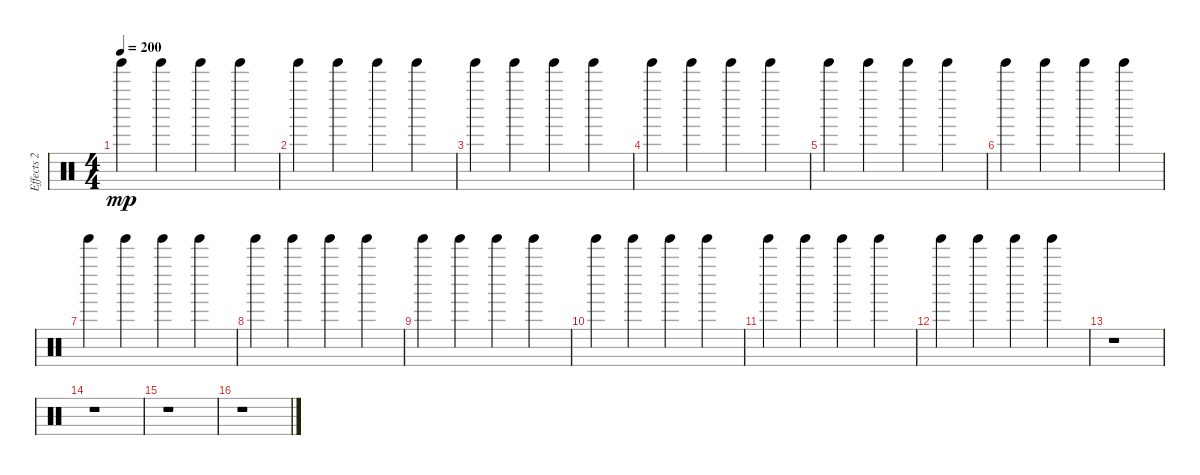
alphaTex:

\track ("Effects 2" "Effects 2") {instrument percussion}
\staff {score}
\articulation defaults
\ts (4 4)
\tempo 200
\clef neutral
\ks c "Tinkle Bell (hit)".4{dy mp} "Tinkle Bell (hit)".4 "Tinkle Bell (hit)".4 "Tinkle Bell (hit)".4
|
"Tinkle Bell (hit)".4 "Tinkle Bell (hit)".4 "Tinkle Bell (hit)".4 "Tinkle Bell (hit)".4 |
"Tinkle Bell (hit)".4 "Tinkle Bell (hit)".4 "Tinkle Bell (hit)".4 "Tinkle Bell (hit)".4 |
"Tinkle Bell (hit)".4 "Tinkle Bell (hit)".4 "Tinkle Bell (hit)".4 "Tinkle Bell (hit)".4 |
"Tinkle Bell (hit)".4 "Tinkle Bell (hit)".4 "Tinkle Bell (hit)".4 "Tinkle Bell (hit)".4 |
"Tinkle Bell (hit)".4 "Tinkle Bell (hit)".4 "Tinkle Bell (hit)".4 "Tinkle Bell (hit)".4 |
"Tinkle Bell (hit)".4 "Tinkle Bell (hit)".4 "Tinkle Bell (hit)".4 "Tinkle Bell (hit)".4 |
"Tinkle Bell (hit)".4 "Tinkle Bell (hit)".4 "Tinkle Bell (hit)".4 "Tinkle Bell (hit)".4 |
"Tinkle Bell (hit)".4 "Tinkle Bell (hit)".4 "Tinkle Bell (hit)".4 "Tinkle Bell (hit)".4 |
"Tinkle Bell (hit)".4 "Tinkle Bell (hit)".4 "Tinkle Bell (hit)".4 "Tinkle Bell (hit)".4 |
"Tinkle Bell (hit)".4 "Tinkle Bell (hit)".4 "Tinkle Bell (hit)".4 "Tinkle Bell (hit)".4 |
"Tinkle Bell (hit)".4 "Tinkle Bell (hit)".4 "Tinkle Bell (hit)".4 "Tinkle Bell (hit)".4 |
r.1 |
r.1 |
r.1 |
r.1
